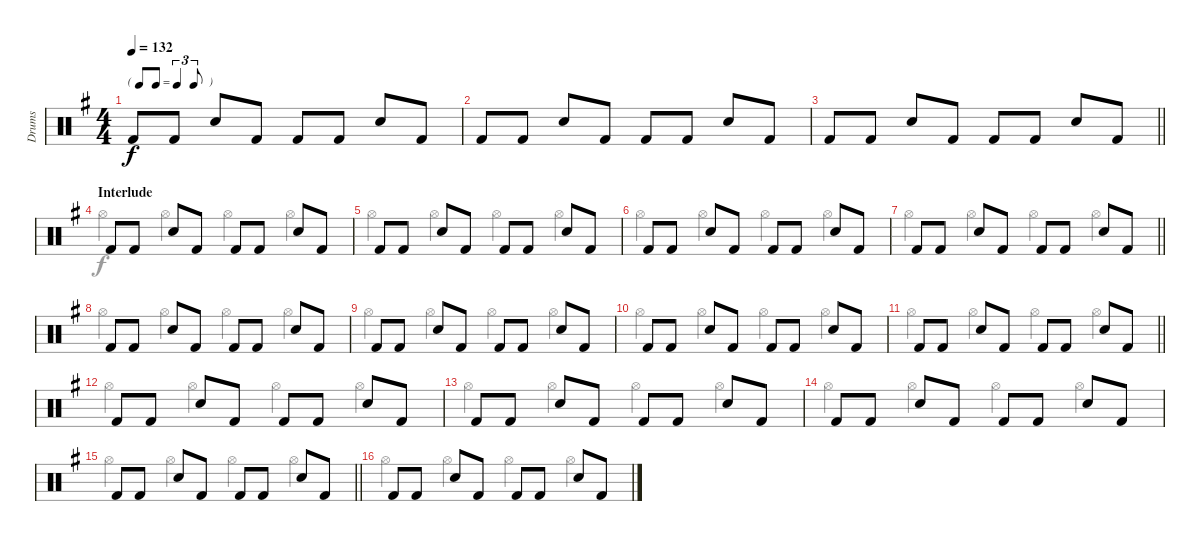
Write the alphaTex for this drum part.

\track ("Drums" "Drums") {instrument percussion}
\staff {score}
\articulation defaults
\voice
\ts (4 4)
\tf triplet8th
\tempo 132
\clef neutral
\ks g "Kick (hit) 2".8{dy f} "Kick (hit) 2".8 "Electric Snare (hit)".8 "Kick (hit) 2".8 "Kick (hit) 2".8 "Kick (hit) 2".8 "Electric Snare (hit)".8 "Kick (hit) 2".8
|
"Kick (hit) 2".8 "Kick (hit) 2".8 "Electric Snare (hit)".8 "Kick (hit) 2".8 "Kick (hit) 2".8 "Kick (hit) 2".8 "Electric Snare (hit)".8 "Kick (hit) 2".8 |
\barLineRight lightlight "Kick (hit) 2".8 "Kick (hit) 2".8 "Electric Snare (hit)".8 "Kick (hit) 2".8 "Kick (hit) 2".8 "Kick (hit) 2".8 "Electric Snare (hit)".8 "Kick (hit) 2".8
|
\section ("" "Interlude")
"Kick (hit) 2".8 "Kick (hit) 2".8 "Electric Snare (hit)".8 "Kick (hit) 2".8 "Kick (hit) 2".8 "Kick (hit) 2".8 "Electric Snare (hit)".8 "Kick (hit) 2".8 |
"Kick (hit) 2".8 "Kick (hit) 2".8 "Electric Snare (hit)".8 "Kick (hit) 2".8 "Kick (hit) 2".8 "Kick (hit) 2".8 "Electric Snare (hit)".8 "Kick (hit) 2".8 |
"Kick (hit) 2".8 "Kick (hit) 2".8 "Electric Snare (hit)".8 "Kick (hit) 2".8 "Kick (hit) 2".8 "Kick (hit) 2".8 "Electric Snare (hit)".8 "Kick (hit) 2".8 |
\barLineRight lightlight "Kick (hit) 2".8 "Kick (hit) 2".8 "Electric Snare (hit)".8 "Kick (hit) 2".8 "Kick (hit) 2".8 "Kick (hit) 2".8 "Electric Snare (hit)".8 "Kick (hit) 2".8
|
"Kick (hit) 2".8 "Kick (hit) 2".8 "Electric Snare (hit)".8 "Kick (hit) 2".8 "Kick (hit) 2".8 "Kick (hit) 2".8 "Electric Snare (hit)".8 "Kick (hit) 2".8 |
"Kick (hit) 2".8 "Kick (hit) 2".8 "Electric Snare (hit)".8 "Kick (hit) 2".8 "Kick (hit) 2".8 "Kick (hit) 2".8 "Electric Snare (hit)".8 "Kick (hit) 2".8 |
"Kick (hit) 2".8 "Kick (hit) 2".8 "Electric Snare (hit)".8 "Kick (hit) 2".8 "Kick (hit) 2".8 "Kick (hit) 2".8 "Electric Snare (hit)".8 "Kick (hit) 2".8 |
\barLineRight lightlight "Kick (hit) 2".8 "Kick (hit) 2".8 "Electric Snare (hit)".8 "Kick (hit) 2".8 "Kick (hit) 2".8 "Kick (hit) 2".8 "Electric Snare (hit)".8 "Kick (hit) 2".8
|
"Kick (hit) 2".8 "Kick (hit) 2".8 "Electric Snare (hit)".8 "Kick (hit) 2".8 "Kick (hit) 2".8 "Kick (hit) 2".8 "Electric Snare (hit)".8 "Kick (hit) 2".8 |
"Kick (hit) 2".8 "Kick (hit) 2".8 "Electric Snare (hit)".8 "Kick (hit) 2".8 "Kick (hit) 2".8 "Kick (hit) 2".8 "Electric Snare (hit)".8 "Kick (hit) 2".8 |
"Kick (hit) 2".8 "Kick (hit) 2".8 "Electric Snare (hit)".8 "Kick (hit) 2".8 "Kick (hit) 2".8 "Kick (hit) 2".8 "Electric Snare (hit)".8 "Kick (hit) 2".8 |
\barLineRight lightlight "Kick (hit) 2".8 "Kick (hit) 2".8 "Electric Snare (hit)".8 "Kick (hit) 2".8 "Kick (hit) 2".8 "Kick (hit) 2".8 "Electric Snare (hit)".8 "Kick (hit) 2".8
|
"Kick (hit) 2".8 "Kick (hit) 2".8 "Electric Snare (hit)".8 "Kick (hit) 2".8 "Kick (hit) 2".8 "Kick (hit) 2".8 "Electric Snare (hit)".8 "Kick (hit) 2".8
\voice
\clef neutral
\ottava regular
\simile none
\ks g
|
|
\barLineRight lightlight
|
"Hi-Hat (open)".4 "Hi-Hat (open)".4 "Hi-Hat (open)".4 "Hi-Hat (open)".4 |
"Hi-Hat (open)".4 "Hi-Hat (open)".4 "Hi-Hat (open)".4 "Hi-Hat (open)".4 |
"Hi-Hat (open)".4 "Hi-Hat (open)".4 "Hi-Hat (open)".4 "Hi-Hat (open)".4 |
\barLineRight lightlight "Hi-Hat (open)".4 "Hi-Hat (open)".4 "Hi-Hat (open)".4 "Hi-Hat (open)".4
|
"Hi-Hat (open)".4 "Hi-Hat (open)".4 "Hi-Hat (open)".4 "Hi-Hat (open)".4 |
"Hi-Hat (open)".4 "Hi-Hat (open)".4 "Hi-Hat (open)".4 "Hi-Hat (open)".4 |
"Hi-Hat (open)".4 "Hi-Hat (open)".4 "Hi-Hat (open)".4 "Hi-Hat (open)".4 |
\barLineRight lightlight "Hi-Hat (open)".4 "Hi-Hat (open)".4 "Hi-Hat (open)".4 "Hi-Hat (open)".4
|
"Hi-Hat (open)".4 "Hi-Hat (open)".4 "Hi-Hat (open)".4 "Hi-Hat (open)".4 |
"Hi-Hat (open)".4 "Hi-Hat (open)".4 "Hi-Hat (open)".4 "Hi-Hat (open)".4 |
"Hi-Hat (open)".4 "Hi-Hat (open)".4 "Hi-Hat (open)".4 "Hi-Hat (open)".4 |
\barLineRight lightlight "Hi-Hat (open)".4 "Hi-Hat (open)".4 "Hi-Hat (open)".4 "Hi-Hat (open)".4
|
"Hi-Hat (open)".4 "Hi-Hat (open)".4 "Hi-Hat (open)".4 "Hi-Hat (open)".4
